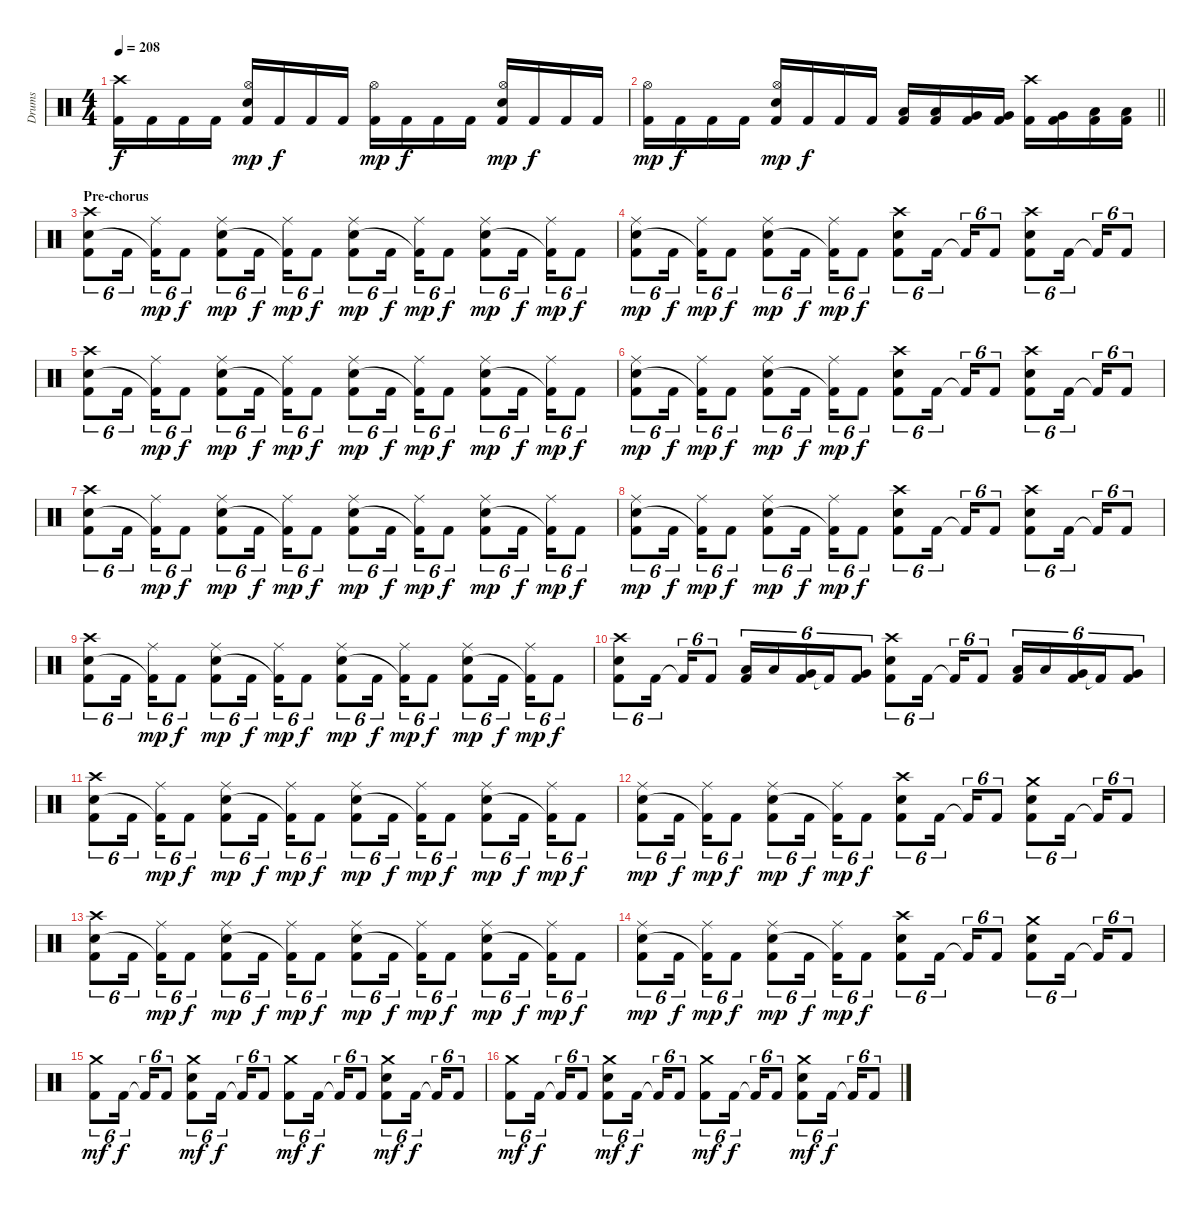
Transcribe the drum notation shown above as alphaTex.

\track ("Drums" "Drums") {instrument percussion}
\staff {score}
\articulation defaults
\ts (4 4)
\tempo 208
\clef neutral
\ks c
("Crash high (hit)" "Kick (hit) 2").16{dy f} "Kick (hit) 2".16 "Kick (hit) 2".16 "Kick (hit) 2".16 ("Hi-Hat (open)" "Electric Snare (hit)" "Kick (hit) 2").16{dy mp} "Kick (hit) 2".16{dy f} "Kick (hit) 2".16 "Kick (hit) 2".16 ("Hi-Hat (open)" "Kick (hit) 2").16{dy mp} "Kick (hit) 2".16{dy f} "Kick (hit) 2".16 "Kick (hit) 2".16 ("Hi-Hat (open)" "Electric Snare (hit)" "Kick (hit) 2").16{dy mp} "Kick (hit) 2".16{dy f} "Kick (hit) 2".16 "Kick (hit) 2".16 |
\barLineRight lightlight
("Hi-Hat (open)" "Kick (hit) 2").16{dy mp} "Kick (hit) 2".16{dy f} "Kick (hit) 2".16 "Kick (hit) 2".16 ("Hi-Hat (open)" "Electric Snare (hit)" "Kick (hit) 2").16{dy mp} "Kick (hit) 2".16{dy f} "Kick (hit) 2".16 "Kick (hit) 2".16 ("Low Tom (hit)" "Kick (hit) 2").16 ("Low Tom (hit)" "Kick (hit) 2").16 ("Very Low Tom (hit)" "Kick (hit) 2").16 ("Very Low Tom (hit)" "Kick (hit) 2").16 ("Crash high (hit)" "Kick (hit) 2").16 ("Very Low Tom (hit)" "Kick (hit) 2").16 ("Low Floor Tom (hit)" "Kick (hit) 2").16 ("Low Floor Tom (hit)" "Kick (hit) 2").16 |
\section ("" "Pre-chorus")
("Crash high (hit)" "Electric Snare (hit)" "Kick (hit) 2").8{tu (6 4)} "Kick (hit) 2".16{tu (6 4)} ("Ride (middle)" "Kick (hit) 2"{t}).16{tu (6 4) dy mp} "Kick (hit) 2".8{tu (6 4) dy f} ("Ride (middle)" "Electric Snare (hit)" "Kick (hit) 2").8{tu (6 4) dy mp} "Kick (hit) 2".16{tu (6 4) dy f} ("Ride (middle)" "Kick (hit) 2"{t}).16{tu (6 4) dy mp} "Kick (hit) 2".8{tu (6 4) dy f} ("Ride (middle)" "Electric Snare (hit)" "Kick (hit) 2").8{tu (6 4) dy mp} "Kick (hit) 2".16{tu (6 4) dy f} ("Ride (middle)" "Kick (hit) 2"{t}).16{tu (6 4) dy mp} "Kick (hit) 2".8{tu (6 4) dy f} ("Ride (middle)" "Electric Snare (hit)" "Kick (hit) 2").8{tu (6 4) dy mp} "Kick (hit) 2".16{tu (6 4) dy f} ("Ride (middle)" "Kick (hit) 2"{t}).16{tu (6 4) dy mp} "Kick (hit) 2".8{tu (6 4) dy f} |
("Ride (middle)" "Electric Snare (hit)" "Kick (hit) 2").8{tu (6 4) dy mp} "Kick (hit) 2".16{tu (6 4) dy f} ("Ride (middle)" "Kick (hit) 2"{t}).16{tu (6 4) dy mp} "Kick (hit) 2".8{tu (6 4) dy f} ("Ride (middle)" "Electric Snare (hit)" "Kick (hit) 2").8{tu (6 4) dy mp} "Kick (hit) 2".16{tu (6 4) dy f} ("Ride (middle)" "Kick (hit) 2"{t}).16{tu (6 4) dy mp} "Kick (hit) 2".8{tu (6 4) dy f} ("Crash high (hit)" "Electric Snare (hit)" "Kick (hit) 2").8{tu (6 4)} "Kick (hit) 2".16{tu (6 4)} "Kick (hit) 2"{t}.16{tu (6 4)} "Kick (hit) 2".8{tu (6 4)} ("Crash high (hit)" "Electric Snare (hit)" "Kick (hit) 2").8{tu (6 4)} "Kick (hit) 2".16{tu (6 4)} "Kick (hit) 2"{t}.16{tu (6 4)} "Kick (hit) 2".8{tu (6 4)} |
("Crash high (hit)" "Electric Snare (hit)" "Kick (hit) 2").8{tu (6 4)} "Kick (hit) 2".16{tu (6 4)} ("Ride (middle)" "Kick (hit) 2"{t}).16{tu (6 4) dy mp} "Kick (hit) 2".8{tu (6 4) dy f} ("Ride (middle)" "Electric Snare (hit)" "Kick (hit) 2").8{tu (6 4) dy mp} "Kick (hit) 2".16{tu (6 4) dy f} ("Ride (middle)" "Kick (hit) 2"{t}).16{tu (6 4) dy mp} "Kick (hit) 2".8{tu (6 4) dy f} ("Ride (middle)" "Electric Snare (hit)" "Kick (hit) 2").8{tu (6 4) dy mp} "Kick (hit) 2".16{tu (6 4) dy f} ("Ride (middle)" "Kick (hit) 2"{t}).16{tu (6 4) dy mp} "Kick (hit) 2".8{tu (6 4) dy f} ("Ride (middle)" "Electric Snare (hit)" "Kick (hit) 2").8{tu (6 4) dy mp} "Kick (hit) 2".16{tu (6 4) dy f} ("Ride (middle)" "Kick (hit) 2"{t}).16{tu (6 4) dy mp} "Kick (hit) 2".8{tu (6 4) dy f} |
("Ride (middle)" "Electric Snare (hit)" "Kick (hit) 2").8{tu (6 4) dy mp} "Kick (hit) 2".16{tu (6 4) dy f} ("Ride (middle)" "Kick (hit) 2"{t}).16{tu (6 4) dy mp} "Kick (hit) 2".8{tu (6 4) dy f} ("Ride (middle)" "Electric Snare (hit)" "Kick (hit) 2").8{tu (6 4) dy mp} "Kick (hit) 2".16{tu (6 4) dy f} ("Ride (middle)" "Kick (hit) 2"{t}).16{tu (6 4) dy mp} "Kick (hit) 2".8{tu (6 4) dy f} ("Crash high (hit)" "Electric Snare (hit)" "Kick (hit) 2").8{tu (6 4)} "Kick (hit) 2".16{tu (6 4)} "Kick (hit) 2"{t}.16{tu (6 4)} "Kick (hit) 2".8{tu (6 4)} ("Crash high (hit)" "Electric Snare (hit)" "Kick (hit) 2").8{tu (6 4)} "Kick (hit) 2".16{tu (6 4)} "Kick (hit) 2"{t}.16{tu (6 4)} "Kick (hit) 2".8{tu (6 4)} |
("Crash high (hit)" "Electric Snare (hit)" "Kick (hit) 2").8{tu (6 4)} "Kick (hit) 2".16{tu (6 4)} ("Ride (middle)" "Kick (hit) 2"{t}).16{tu (6 4) dy mp} "Kick (hit) 2".8{tu (6 4) dy f} ("Ride (middle)" "Electric Snare (hit)" "Kick (hit) 2").8{tu (6 4) dy mp} "Kick (hit) 2".16{tu (6 4) dy f} ("Ride (middle)" "Kick (hit) 2"{t}).16{tu (6 4) dy mp} "Kick (hit) 2".8{tu (6 4) dy f} ("Ride (middle)" "Electric Snare (hit)" "Kick (hit) 2").8{tu (6 4) dy mp} "Kick (hit) 2".16{tu (6 4) dy f} ("Ride (middle)" "Kick (hit) 2"{t}).16{tu (6 4) dy mp} "Kick (hit) 2".8{tu (6 4) dy f} ("Ride (middle)" "Electric Snare (hit)" "Kick (hit) 2").8{tu (6 4) dy mp} "Kick (hit) 2".16{tu (6 4) dy f} ("Ride (middle)" "Kick (hit) 2"{t}).16{tu (6 4) dy mp} "Kick (hit) 2".8{tu (6 4) dy f} |
("Ride (middle)" "Electric Snare (hit)" "Kick (hit) 2").8{tu (6 4) dy mp} "Kick (hit) 2".16{tu (6 4) dy f} ("Ride (middle)" "Kick (hit) 2"{t}).16{tu (6 4) dy mp} "Kick (hit) 2".8{tu (6 4) dy f} ("Ride (middle)" "Electric Snare (hit)" "Kick (hit) 2").8{tu (6 4) dy mp} "Kick (hit) 2".16{tu (6 4) dy f} ("Ride (middle)" "Kick (hit) 2"{t}).16{tu (6 4) dy mp} "Kick (hit) 2".8{tu (6 4) dy f} ("Crash high (hit)" "Electric Snare (hit)" "Kick (hit) 2").8{tu (6 4)} "Kick (hit) 2".16{tu (6 4)} "Kick (hit) 2"{t}.16{tu (6 4)} "Kick (hit) 2".8{tu (6 4)} ("Crash high (hit)" "Electric Snare (hit)" "Kick (hit) 2").8{tu (6 4)} "Kick (hit) 2".16{tu (6 4)} "Kick (hit) 2"{t}.16{tu (6 4)} "Kick (hit) 2".8{tu (6 4)} |
("Crash high (hit)" "Electric Snare (hit)" "Kick (hit) 2").8{tu (6 4)} "Kick (hit) 2".16{tu (6 4)} ("Ride (middle)" "Kick (hit) 2"{t}).16{tu (6 4) dy mp} "Kick (hit) 2".8{tu (6 4) dy f} ("Ride (middle)" "Electric Snare (hit)" "Kick (hit) 2").8{tu (6 4) dy mp} "Kick (hit) 2".16{tu (6 4) dy f} ("Ride (middle)" "Kick (hit) 2"{t}).16{tu (6 4) dy mp} "Kick (hit) 2".8{tu (6 4) dy f} ("Ride (middle)" "Electric Snare (hit)" "Kick (hit) 2").8{tu (6 4) dy mp} "Kick (hit) 2".16{tu (6 4) dy f} ("Ride (middle)" "Kick (hit) 2"{t}).16{tu (6 4) dy mp} "Kick (hit) 2".8{tu (6 4) dy f} ("Ride (middle)" "Electric Snare (hit)" "Kick (hit) 2").8{tu (6 4) dy mp} "Kick (hit) 2".16{tu (6 4) dy f} ("Ride (middle)" "Kick (hit) 2"{t}).16{tu (6 4) dy mp} "Kick (hit) 2".8{tu (6 4) dy f} |
("Crash high (hit)" "Electric Snare (hit)" "Kick (hit) 2").8{tu (6 4)} "Kick (hit) 2".16{tu (6 4)} "Kick (hit) 2"{t}.16{tu (6 4)} "Kick (hit) 2".8{tu (6 4)} ("Low Tom (hit)" "Kick (hit) 2").16{tu (6 4)} "Low Tom (hit)".16{tu (6 4)} ("Very Low Tom (hit)" "Kick (hit) 2").16{tu (6 4)} "Kick (hit) 2"{t}.16{tu (6 4)} ("Very Low Tom (hit)" "Kick (hit) 2").8{tu (6 4)} ("Crash high (hit)" "Electric Snare (hit)" "Kick (hit) 2").8{tu (6 4)} "Kick (hit) 2".16{tu (6 4)} "Kick (hit) 2"{t}.16{tu (6 4)} "Kick (hit) 2".8{tu (6 4)} ("Low Tom (hit)" "Kick (hit) 2").16{tu (6 4)} "Low Tom (hit)".16{tu (6 4)} ("Very Low Tom (hit)" "Kick (hit) 2").16{tu (6 4)} "Kick (hit) 2"{t}.16{tu (6 4)} ("Very Low Tom (hit)" "Kick (hit) 2").8{tu (6 4)} |
("Crash high (hit)" "Electric Snare (hit)" "Kick (hit) 2").8{tu (6 4)} "Kick (hit) 2".16{tu (6 4)} ("Ride (middle)" "Kick (hit) 2"{t}).16{tu (6 4) dy mp} "Kick (hit) 2".8{tu (6 4) dy f} ("Ride (middle)" "Electric Snare (hit)" "Kick (hit) 2").8{tu (6 4) dy mp} "Kick (hit) 2".16{tu (6 4) dy f} ("Ride (middle)" "Kick (hit) 2"{t}).16{tu (6 4) dy mp} "Kick (hit) 2".8{tu (6 4) dy f} ("Ride (middle)" "Electric Snare (hit)" "Kick (hit) 2").8{tu (6 4) dy mp} "Kick (hit) 2".16{tu (6 4) dy f} ("Ride (middle)" "Kick (hit) 2"{t}).16{tu (6 4) dy mp} "Kick (hit) 2".8{tu (6 4) dy f} ("Ride (middle)" "Electric Snare (hit)" "Kick (hit) 2").8{tu (6 4) dy mp} "Kick (hit) 2".16{tu (6 4) dy f} ("Ride (middle)" "Kick (hit) 2"{t}).16{tu (6 4) dy mp} "Kick (hit) 2".8{tu (6 4) dy f} |
("Ride (middle)" "Electric Snare (hit)" "Kick (hit) 2").8{tu (6 4) dy mp} "Kick (hit) 2".16{tu (6 4) dy f} ("Ride (middle)" "Kick (hit) 2"{t}).16{tu (6 4) dy mp} "Kick (hit) 2".8{tu (6 4) dy f} ("Ride (middle)" "Electric Snare (hit)" "Kick (hit) 2").8{tu (6 4) dy mp} "Kick (hit) 2".16{tu (6 4) dy f} ("Ride (middle)" "Kick (hit) 2"{t}).16{tu (6 4) dy mp} "Kick (hit) 2".8{tu (6 4) dy f} ("Crash high (hit)" "Electric Snare (hit)" "Kick (hit) 2").8{tu (6 4)} "Kick (hit) 2".16{tu (6 4)} "Kick (hit) 2"{t}.16{tu (6 4)} "Kick (hit) 2".8{tu (6 4)} ("Crash medium (hit)" "Electric Snare (hit)" "Kick (hit) 2").8{tu (6 4)} "Kick (hit) 2".16{tu (6 4)} "Kick (hit) 2"{t}.16{tu (6 4)} "Kick (hit) 2".8{tu (6 4)} |
("Crash high (hit)" "Electric Snare (hit)" "Kick (hit) 2").8{tu (6 4)} "Kick (hit) 2".16{tu (6 4)} ("Ride (middle)" "Kick (hit) 2"{t}).16{tu (6 4) dy mp} "Kick (hit) 2".8{tu (6 4) dy f} ("Ride (middle)" "Electric Snare (hit)" "Kick (hit) 2").8{tu (6 4) dy mp} "Kick (hit) 2".16{tu (6 4) dy f} ("Ride (middle)" "Kick (hit) 2"{t}).16{tu (6 4) dy mp} "Kick (hit) 2".8{tu (6 4) dy f} ("Ride (middle)" "Electric Snare (hit)" "Kick (hit) 2").8{tu (6 4) dy mp} "Kick (hit) 2".16{tu (6 4) dy f} ("Ride (middle)" "Kick (hit) 2"{t}).16{tu (6 4) dy mp} "Kick (hit) 2".8{tu (6 4) dy f} ("Ride (middle)" "Electric Snare (hit)" "Kick (hit) 2").8{tu (6 4) dy mp} "Kick (hit) 2".16{tu (6 4) dy f} ("Ride (middle)" "Kick (hit) 2"{t}).16{tu (6 4) dy mp} "Kick (hit) 2".8{tu (6 4) dy f} |
("Ride (middle)" "Electric Snare (hit)" "Kick (hit) 2").8{tu (6 4) dy mp} "Kick (hit) 2".16{tu (6 4) dy f} ("Ride (middle)" "Kick (hit) 2"{t}).16{tu (6 4) dy mp} "Kick (hit) 2".8{tu (6 4) dy f} ("Ride (middle)" "Electric Snare (hit)" "Kick (hit) 2").8{tu (6 4) dy mp} "Kick (hit) 2".16{tu (6 4) dy f} ("Ride (middle)" "Kick (hit) 2"{t}).16{tu (6 4) dy mp} "Kick (hit) 2".8{tu (6 4) dy f} ("Crash high (hit)" "Electric Snare (hit)" "Kick (hit) 2").8{tu (6 4)} "Kick (hit) 2".16{tu (6 4)} "Kick (hit) 2"{t}.16{tu (6 4)} "Kick (hit) 2".8{tu (6 4)} ("Crash medium (hit)" "Electric Snare (hit)" "Kick (hit) 2").8{tu (6 4)} "Kick (hit) 2".16{tu (6 4)} "Kick (hit) 2"{t}.16{tu (6 4)} "Kick (hit) 2".8{tu (6 4)} |
("Crash medium (hit)" "Kick (hit) 2").8{tu (6 4) dy mf} "Kick (hit) 2".16{tu (6 4) dy f} "Kick (hit) 2"{t}.16{tu (6 4)} "Kick (hit) 2".8{tu (6 4)} ("Crash medium (hit)" "Electric Snare (hit)" "Kick (hit) 2").8{tu (6 4) dy mf} "Kick (hit) 2".16{tu (6 4) dy f} "Kick (hit) 2"{t}.16{tu (6 4)} "Kick (hit) 2".8{tu (6 4)} ("Crash medium (hit)" "Kick (hit) 2").8{tu (6 4) dy mf} "Kick (hit) 2".16{tu (6 4) dy f} "Kick (hit) 2"{t}.16{tu (6 4)} "Kick (hit) 2".8{tu (6 4)} ("Crash medium (hit)" "Electric Snare (hit)" "Kick (hit) 2").8{tu (6 4) dy mf} "Kick (hit) 2".16{tu (6 4) dy f} "Kick (hit) 2"{t}.16{tu (6 4)} "Kick (hit) 2".8{tu (6 4)} |
("Crash medium (hit)" "Kick (hit) 2").8{tu (6 4) dy mf} "Kick (hit) 2".16{tu (6 4) dy f} "Kick (hit) 2"{t}.16{tu (6 4)} "Kick (hit) 2".8{tu (6 4)} ("Crash medium (hit)" "Electric Snare (hit)" "Kick (hit) 2").8{tu (6 4) dy mf} "Kick (hit) 2".16{tu (6 4) dy f} "Kick (hit) 2"{t}.16{tu (6 4)} "Kick (hit) 2".8{tu (6 4)} ("Crash medium (hit)" "Kick (hit) 2").8{tu (6 4) dy mf} "Kick (hit) 2".16{tu (6 4) dy f} "Kick (hit) 2"{t}.16{tu (6 4)} "Kick (hit) 2".8{tu (6 4)} ("Crash medium (hit)" "Electric Snare (hit)" "Kick (hit) 2").8{tu (6 4) dy mf} "Kick (hit) 2".16{tu (6 4) dy f} "Kick (hit) 2"{t}.16{tu (6 4)} "Kick (hit) 2".8{tu (6 4)}
